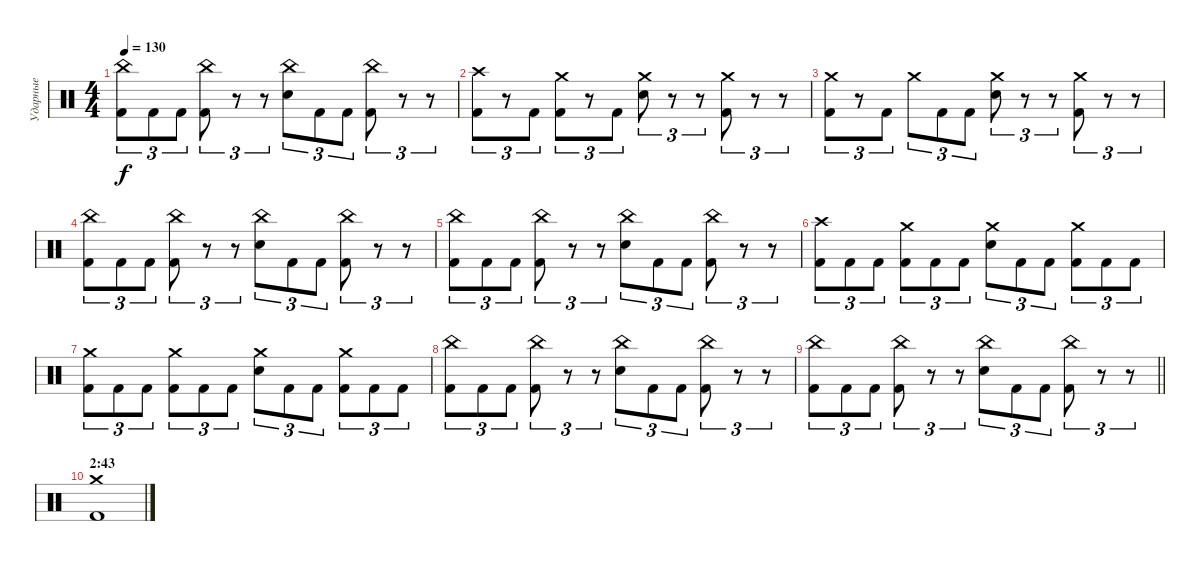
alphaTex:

\track ("Ударные" "Ударные") {instrument percussion}
\staff {score}
\articulation defaults
\ts (4 4)
\tempo 130
\clef neutral
\ks c
("China (hit)" "Kick (hit) 2").8{tu (3 2) dy f} "Kick (hit) 2".8{tu (3 2)} "Kick (hit) 2".8{tu (3 2)} ("China (hit)" "Kick (hit) 2").8{tu (3 2)} r.8{tu (3 2)} r.8{tu (3 2)} ("China (hit)" "Electric Snare (hit)").8{tu (3 2)} "Kick (hit) 2".8{tu (3 2)} "Kick (hit) 2".8{tu (3 2)} ("China (hit)" "Kick (hit) 2").8{tu (3 2)} r.8{tu (3 2)} r.8{tu (3 2)} |
("Crash high (hit)" "Kick (hit) 2").8{tu (3 2)} r.8{tu (3 2)} "Kick (hit) 2".8{tu (3 2)} ("Crash medium (hit)" "Kick (hit) 2").8{tu (3 2)} r.8{tu (3 2)} "Kick (hit) 2".8{tu (3 2)} ("Crash medium (hit)" "Electric Snare (hit)").8{tu (3 2)} r.8{tu (3 2)} r.8{tu (3 2)} ("Crash medium (hit)" "Kick (hit) 2").8{tu (3 2)} r.8{tu (3 2)} r.8{tu (3 2)} |
("Crash medium (hit)" "Kick (hit) 2").8{tu (3 2)} r.8{tu (3 2)} "Kick (hit) 2".8{tu (3 2)} "Crash medium (hit)".8{tu (3 2)} "Kick (hit) 2".8{tu (3 2)} "Kick (hit) 2".8{tu (3 2)} ("Crash medium (hit)" "Electric Snare (hit)").8{tu (3 2)} r.8{tu (3 2)} r.8{tu (3 2)} ("Crash medium (hit)" "Kick (hit) 2").8{tu (3 2)} r.8{tu (3 2)} r.8{tu (3 2)} |
("China (hit)" "Kick (hit) 2").8{tu (3 2)} "Kick (hit) 2".8{tu (3 2)} "Kick (hit) 2".8{tu (3 2)} ("China (hit)" "Kick (hit) 2").8{tu (3 2)} r.8{tu (3 2)} r.8{tu (3 2)} ("China (hit)" "Electric Snare (hit)").8{tu (3 2)} "Kick (hit) 2".8{tu (3 2)} "Kick (hit) 2".8{tu (3 2)} ("China (hit)" "Kick (hit) 2").8{tu (3 2)} r.8{tu (3 2)} r.8{tu (3 2)} |
("China (hit)" "Kick (hit) 2").8{tu (3 2)} "Kick (hit) 2".8{tu (3 2)} "Kick (hit) 2".8{tu (3 2)} ("China (hit)" "Kick (hit) 2").8{tu (3 2)} r.8{tu (3 2)} r.8{tu (3 2)} ("China (hit)" "Electric Snare (hit)").8{tu (3 2)} "Kick (hit) 2".8{tu (3 2)} "Kick (hit) 2".8{tu (3 2)} ("China (hit)" "Kick (hit) 2").8{tu (3 2)} r.8{tu (3 2)} r.8{tu (3 2)} |
("Crash high (hit)" "Kick (hit) 2").8{tu (3 2)} "Kick (hit) 2".8{tu (3 2)} "Kick (hit) 2".8{tu (3 2)} ("Crash medium (hit)" "Kick (hit) 2").8{tu (3 2)} "Kick (hit) 2".8{tu (3 2)} "Kick (hit) 2".8{tu (3 2)} ("Crash medium (hit)" "Electric Snare (hit)").8{tu (3 2)} "Kick (hit) 2".8{tu (3 2)} "Kick (hit) 2".8{tu (3 2)} ("Crash medium (hit)" "Kick (hit) 2").8{tu (3 2)} "Kick (hit) 2".8{tu (3 2)} "Kick (hit) 2".8{tu (3 2)} |
("Crash medium (hit)" "Kick (hit) 2").8{tu (3 2)} "Kick (hit) 2".8{tu (3 2)} "Kick (hit) 2".8{tu (3 2)} ("Crash medium (hit)" "Kick (hit) 2").8{tu (3 2)} "Kick (hit) 2".8{tu (3 2)} "Kick (hit) 2".8{tu (3 2)} ("Crash medium (hit)" "Electric Snare (hit)").8{tu (3 2)} "Kick (hit) 2".8{tu (3 2)} "Kick (hit) 2".8{tu (3 2)} ("Crash medium (hit)" "Kick (hit) 2").8{tu (3 2)} "Kick (hit) 2".8{tu (3 2)} "Kick (hit) 2".8{tu (3 2)} |
("China (hit)" "Kick (hit) 2").8{tu (3 2)} "Kick (hit) 2".8{tu (3 2)} "Kick (hit) 2".8{tu (3 2)} ("China (hit)" "Kick (hit) 2").8{tu (3 2)} r.8{tu (3 2)} r.8{tu (3 2)} ("China (hit)" "Electric Snare (hit)").8{tu (3 2)} "Kick (hit) 2".8{tu (3 2)} "Kick (hit) 2".8{tu (3 2)} ("China (hit)" "Kick (hit) 2").8{tu (3 2)} r.8{tu (3 2)} r.8{tu (3 2)} |
\barLineRight lightlight
("China (hit)" "Kick (hit) 2").8{tu (3 2)} "Kick (hit) 2".8{tu (3 2)} "Kick (hit) 2".8{tu (3 2)} ("China (hit)" "Kick (hit) 2").8{tu (3 2)} r.8{tu (3 2)} r.8{tu (3 2)} ("China (hit)" "Electric Snare (hit)").8{tu (3 2)} "Kick (hit) 2".8{tu (3 2)} "Kick (hit) 2".8{tu (3 2)} ("China (hit)" "Kick (hit) 2").8{tu (3 2)} r.8{tu (3 2)} r.8{tu (3 2)} |
\section ("" "2:43")
("Crash medium (hit)" "Kick (hit) 2").1
